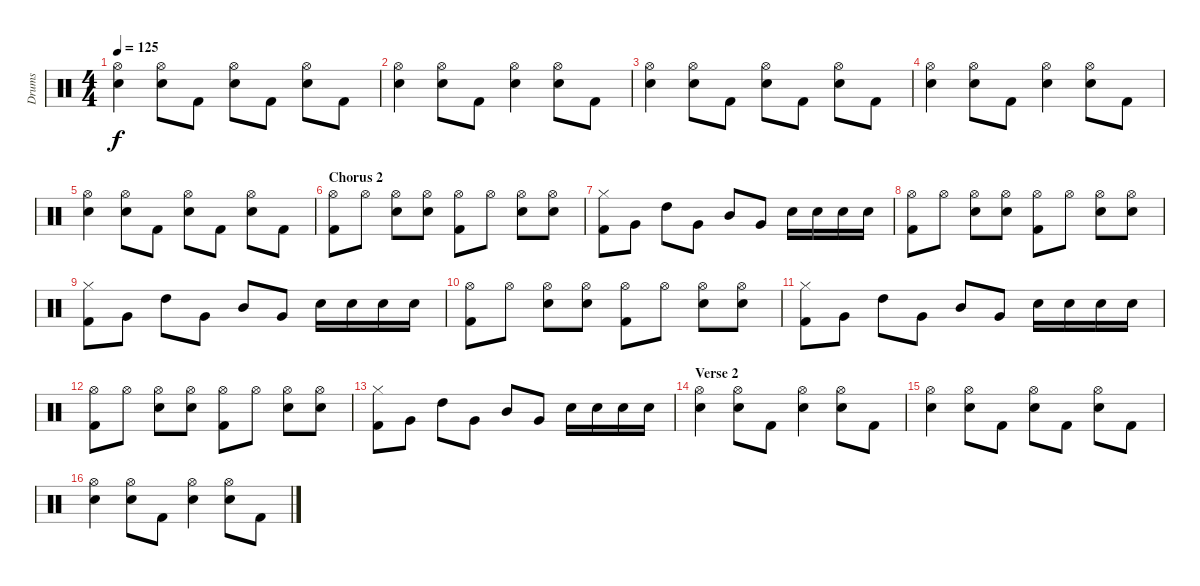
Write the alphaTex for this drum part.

\track ("Drums" "Drums") {instrument percussion}
\staff {score}
\articulation defaults
\ts (4 4)
\tempo 125
\clef neutral
\ks c
("Hi-Hat (open)" "Electric Snare (hit)").4{dy f} ("Hi-Hat (open)" "Electric Snare (hit)").8 "Kick (hit) 2".8 ("Hi-Hat (open)" "Electric Snare (hit)").8 "Kick (hit) 2".8 ("Hi-Hat (open)" "Electric Snare (hit)").8 "Kick (hit) 2".8 |
("Hi-Hat (open)" "Electric Snare (hit)").4 ("Hi-Hat (open)" "Electric Snare (hit)").8 "Kick (hit) 2".8 ("Hi-Hat (open)" "Electric Snare (hit)").4 ("Hi-Hat (open)" "Electric Snare (hit)").8 "Kick (hit) 2".8 |
("Hi-Hat (open)" "Electric Snare (hit)").4 ("Hi-Hat (open)" "Electric Snare (hit)").8 "Kick (hit) 2".8 ("Hi-Hat (open)" "Electric Snare (hit)").8 "Kick (hit) 2".8 ("Hi-Hat (open)" "Electric Snare (hit)").8 "Kick (hit) 2".8 |
("Hi-Hat (open)" "Electric Snare (hit)").4 ("Hi-Hat (open)" "Electric Snare (hit)").8 "Kick (hit) 2".8 ("Hi-Hat (open)" "Electric Snare (hit)").4 ("Hi-Hat (open)" "Electric Snare (hit)").8 "Kick (hit) 2".8 |
("Hi-Hat (open)" "Electric Snare (hit)").4 ("Hi-Hat (open)" "Electric Snare (hit)").8 "Kick (hit) 2".8 ("Hi-Hat (open)" "Electric Snare (hit)").8 "Kick (hit) 2".8 ("Hi-Hat (open)" "Electric Snare (hit)").8 "Kick (hit) 2".8 |
\section ("" "Chorus 2")
("Hi-Hat (open)" "Kick (hit) 2").8 "Hi-Hat (open)".8 ("Hi-Hat (open)" "Electric Snare (hit)").8 ("Hi-Hat (open)" "Electric Snare (hit)").8 ("Hi-Hat (open)" "Kick (hit) 2").8 "Hi-Hat (open)".8 ("Hi-Hat (open)" "Electric Snare (hit)").8 ("Hi-Hat (open)" "Electric Snare (hit)").8 |
("Hi-Hat (closed)" "Kick (hit) 2").8 "Very Low Tom (hit)".8 "High Tom (hit)".8 "Very Low Tom (hit)".8 "Mid Tom (hit)".8 "Very Low Tom (hit)".8 "Electric Snare (hit)".16 "Electric Snare (hit)".16 "Electric Snare (hit)".16 "Electric Snare (hit)".16 |
("Hi-Hat (open)" "Kick (hit) 2").8 "Hi-Hat (open)".8 ("Hi-Hat (open)" "Electric Snare (hit)").8 ("Hi-Hat (open)" "Electric Snare (hit)").8 ("Hi-Hat (open)" "Kick (hit) 2").8 "Hi-Hat (open)".8 ("Hi-Hat (open)" "Electric Snare (hit)").8 ("Hi-Hat (open)" "Electric Snare (hit)").8 |
("Hi-Hat (closed)" "Kick (hit) 2").8 "Very Low Tom (hit)".8 "High Tom (hit)".8 "Very Low Tom (hit)".8 "Mid Tom (hit)".8 "Very Low Tom (hit)".8 "Electric Snare (hit)".16 "Electric Snare (hit)".16 "Electric Snare (hit)".16 "Electric Snare (hit)".16 |
("Hi-Hat (open)" "Kick (hit) 2").8 "Hi-Hat (open)".8 ("Hi-Hat (open)" "Electric Snare (hit)").8 ("Hi-Hat (open)" "Electric Snare (hit)").8 ("Hi-Hat (open)" "Kick (hit) 2").8 "Hi-Hat (open)".8 ("Hi-Hat (open)" "Electric Snare (hit)").8 ("Hi-Hat (open)" "Electric Snare (hit)").8 |
("Hi-Hat (closed)" "Kick (hit) 2").8 "Very Low Tom (hit)".8 "High Tom (hit)".8 "Very Low Tom (hit)".8 "Mid Tom (hit)".8 "Very Low Tom (hit)".8 "Electric Snare (hit)".16 "Electric Snare (hit)".16 "Electric Snare (hit)".16 "Electric Snare (hit)".16 |
("Hi-Hat (open)" "Kick (hit) 2").8 "Hi-Hat (open)".8 ("Hi-Hat (open)" "Electric Snare (hit)").8 ("Hi-Hat (open)" "Electric Snare (hit)").8 ("Hi-Hat (open)" "Kick (hit) 2").8 "Hi-Hat (open)".8 ("Hi-Hat (open)" "Electric Snare (hit)").8 ("Hi-Hat (open)" "Electric Snare (hit)").8 |
("Hi-Hat (closed)" "Kick (hit) 2").8 "Very Low Tom (hit)".8 "High Tom (hit)".8 "Very Low Tom (hit)".8 "Mid Tom (hit)".8 "Very Low Tom (hit)".8 "Electric Snare (hit)".16 "Electric Snare (hit)".16 "Electric Snare (hit)".16 "Electric Snare (hit)".16 |
\section ("" "Verse 2")
("Hi-Hat (open)" "Electric Snare (hit)").4 ("Hi-Hat (open)" "Electric Snare (hit)").8 "Kick (hit) 2".8 ("Hi-Hat (open)" "Electric Snare (hit)").4 ("Hi-Hat (open)" "Electric Snare (hit)").8 "Kick (hit) 2".8 |
("Hi-Hat (open)" "Electric Snare (hit)").4 ("Hi-Hat (open)" "Electric Snare (hit)").8 "Kick (hit) 2".8 ("Hi-Hat (open)" "Electric Snare (hit)").8 "Kick (hit) 2".8 ("Hi-Hat (open)" "Electric Snare (hit)").8 "Kick (hit) 2".8 |
("Hi-Hat (open)" "Electric Snare (hit)").4 ("Hi-Hat (open)" "Electric Snare (hit)").8 "Kick (hit) 2".8 ("Hi-Hat (open)" "Electric Snare (hit)").4 ("Hi-Hat (open)" "Electric Snare (hit)").8 "Kick (hit) 2".8
